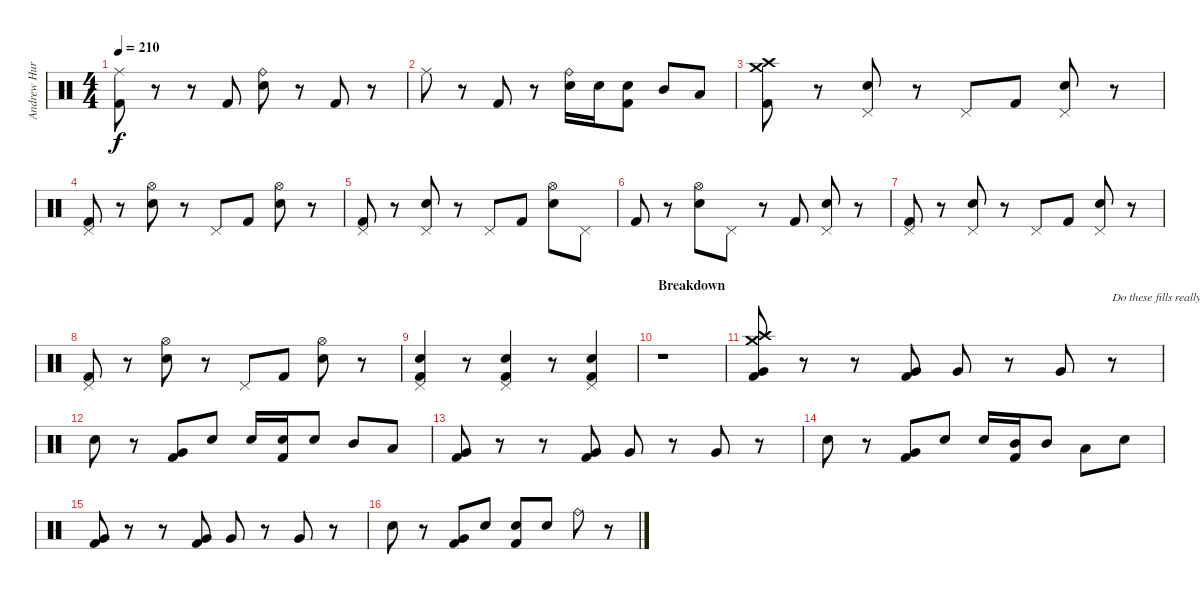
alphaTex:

\track ("Andrew Hurley (Drums)" "Andrew Hur") {instrument percussion}
\staff {score}
\articulation defaults
\ts (4 4)
\tempo 210
\clef neutral
\ks c
("Ride (middle)" "Kick (hit) 2").8{dy f} r.8 r.8 "Kick (hit) 2".8 ("Ride (bell)" "Electric Snare (hit)").8 r.8 "Kick (hit) 2".8 r.8 |
"Ride (middle)".8 r.8 "Kick (hit) 2".8 r.8 ("Ride (bell)" "Electric Snare (hit)").16 "Electric Snare (hit)".16 ("Electric Snare (hit)" "Kick (hit) 2").8 "Mid Tom (hit)".8 "Low Tom (hit)".8 |
("Crash high (hit)" "Crash medium (hit)" "Kick (hit) 2").8 r.8 ("Pedal Hi-Hat (hit)" "Electric Snare (hit)").8 r.8 "Pedal Hi-Hat (hit)".8 "Kick (hit) 2".8 ("Pedal Hi-Hat (hit)" "Electric Snare (hit)").8 r.8 |
("Pedal Hi-Hat (hit)" "Kick (hit) 2").8 r.8 ("Hi-Hat (open)" "Electric Snare (hit)").8 r.8 "Pedal Hi-Hat (hit)".8 "Kick (hit) 2".8 ("Hi-Hat (open)" "Electric Snare (hit)").8 r.8 |
("Pedal Hi-Hat (hit)" "Kick (hit) 2").8 r.8 ("Pedal Hi-Hat (hit)" "Electric Snare (hit)").8 r.8 "Pedal Hi-Hat (hit)".8 "Kick (hit) 2".8 ("Hi-Hat (open)" "Electric Snare (hit)").8 "Pedal Hi-Hat (hit)".8 |
"Kick (hit) 2".8 r.8 ("Hi-Hat (open)" "Electric Snare (hit)").8 "Pedal Hi-Hat (hit)".8 r.8 "Kick (hit) 2".8 ("Pedal Hi-Hat (hit)" "Electric Snare (hit)").8 r.8 |
("Pedal Hi-Hat (hit)" "Kick (hit) 2").8 r.8 ("Pedal Hi-Hat (hit)" "Electric Snare (hit)").8 r.8 "Pedal Hi-Hat (hit)".8 "Kick (hit) 2".8 ("Pedal Hi-Hat (hit)" "Electric Snare (hit)").8 r.8 |
("Pedal Hi-Hat (hit)" "Kick (hit) 2").8 r.8 ("Hi-Hat (open)" "Electric Snare (hit)").8 r.8 "Pedal Hi-Hat (hit)".8 "Kick (hit) 2".8 ("Hi-Hat (open)" "Electric Snare (hit)").8 r.8 |
("Pedal Hi-Hat (hit)" "Electric Snare (hit)" "Kick (hit) 2").4 r.8 ("Pedal Hi-Hat (hit)" "Electric Snare (hit)" "Kick (hit) 2").4 r.8 ("Pedal Hi-Hat (hit)" "Electric Snare (hit)" "Kick (hit) 2").4 |
\section ("" "Breakdown")
r.1 |
("Crash medium (hit)" "Crash high (hit)" "Very Low Tom (hit)" "Kick (hit) 2").8 r.8{volume 8} r.8 ("Very Low Tom (hit)" "Kick (hit) 2").8 "Very Low Tom (hit)".8 r.8 "Very Low Tom (hit)".8 r.8{txt "Do these fills really quietly and gently"} |
"Electric Snare (hit)".8{volume 8} r.8 ("Very Low Tom (hit)" "Kick (hit) 2").8 "Electric Snare (hit)".8 "Electric Snare (hit)".16 ("Electric Snare (hit)" "Kick (hit) 2").16 "Electric Snare (hit)".8 "Mid Tom (hit)".8 "Low Tom (hit)".8 |
("Very Low Tom (hit)" "Kick (hit) 2").8{volume 8} r.8 r.8 ("Very Low Tom (hit)" "Kick (hit) 2").8 "Very Low Tom (hit)".8 r.8 "Very Low Tom (hit)".8 r.8 |
"Electric Snare (hit)".8{volume 8} r.8 ("Very Low Tom (hit)" "Kick (hit) 2").8 "Electric Snare (hit)".8 "Electric Snare (hit)".16 ("Mid Tom (hit)" "Kick (hit) 2").16 "Mid Tom (hit)".8 "Low Tom (hit)".8 "Electric Snare (hit)".8 |
("Very Low Tom (hit)" "Kick (hit) 2").8{volume 8} r.8 r.8 ("Very Low Tom (hit)" "Kick (hit) 2").8 "Very Low Tom (hit)".8 r.8 "Very Low Tom (hit)".8 r.8 |
"Electric Snare (hit)".8{volume 8} r.8 ("Very Low Tom (hit)" "Kick (hit) 2").8 "Electric Snare (hit)".8 ("Electric Snare (hit)" "Kick (hit) 2").8 "Electric Snare (hit)".8 "Ride (bell)".8 r.8
